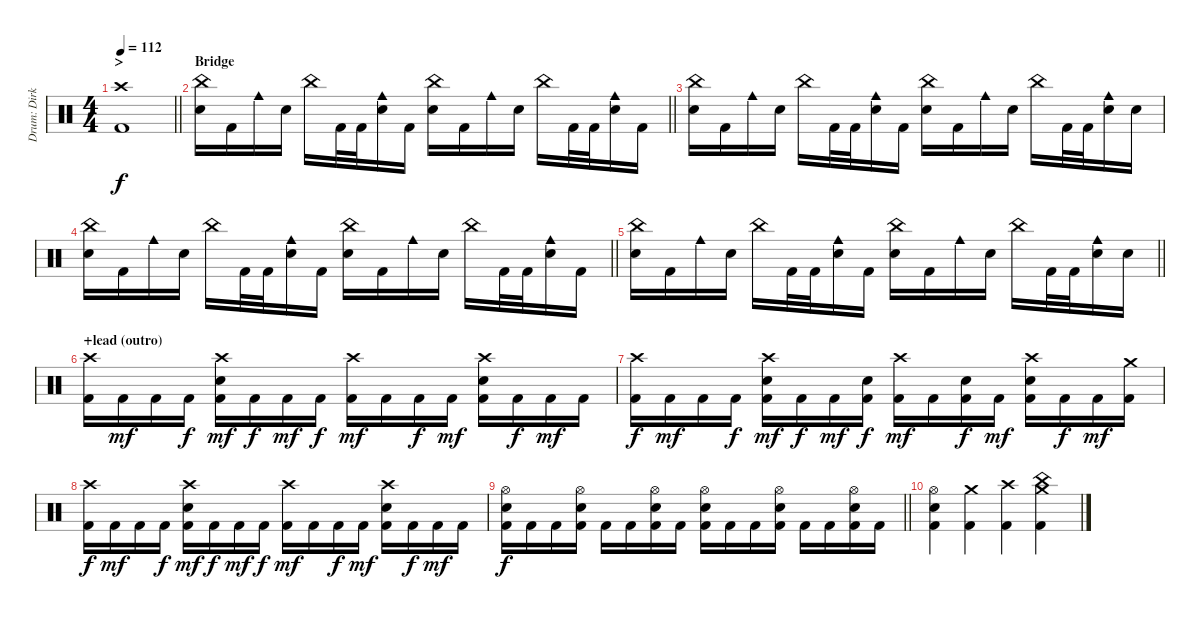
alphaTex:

\track ("Drum: Dirk" "Drum: Dirk") {instrument percussion}
\staff {score}
\articulation defaults
\ts (4 4)
\section ("" ">")
\tempo 112
\clef neutral
\barLineRight lightlight
\ks c
("Crash high (hit)" "Kick (hit) 2").1{dy f} |
\section ("" "Bridge")
\barLineRight lightlight
("China (hit)" "Electric Snare (hit)").16 "Kick (hit) 2".16 "Cowbell medium (hit)".16 "Electric Snare (hit)".16 "China (hit)".16 "Kick (hit) 2".32 "Kick (hit) 2".32 ("Cowbell medium (hit)" "Electric Snare (hit)").16 "Kick (hit) 2".16 ("China (hit)" "Electric Snare (hit)").16 "Kick (hit) 2".16 "Cowbell medium (hit)".16 "Electric Snare (hit)".16 "China (hit)".16 "Kick (hit) 2".32 "Kick (hit) 2".32 ("Cowbell medium (hit)" "Electric Snare (hit)").16 "Kick (hit) 2".16 |
("China (hit)" "Electric Snare (hit)").16 "Kick (hit) 2".16 "Cowbell medium (hit)".16 "Electric Snare (hit)".16 "China (hit)".16 "Kick (hit) 2".32 "Kick (hit) 2".32 ("Cowbell medium (hit)" "Electric Snare (hit)").16 "Kick (hit) 2".16 ("China (hit)" "Electric Snare (hit)").16 "Kick (hit) 2".16 "Cowbell medium (hit)".16 "Electric Snare (hit)".16 "China (hit)".16 "Kick (hit) 2".32 "Kick (hit) 2".32 ("Cowbell medium (hit)" "Electric Snare (hit)").16 "Electric Snare (hit)".16 |
\barLineRight lightlight
("China (hit)" "Electric Snare (hit)").16 "Kick (hit) 2".16 "Cowbell medium (hit)".16 "Electric Snare (hit)".16 "China (hit)".16 "Kick (hit) 2".32 "Kick (hit) 2".32 ("Cowbell medium (hit)" "Electric Snare (hit)").16 "Kick (hit) 2".16 ("China (hit)" "Electric Snare (hit)").16 "Kick (hit) 2".16 "Cowbell medium (hit)".16 "Electric Snare (hit)".16 "China (hit)".16 "Kick (hit) 2".32 "Kick (hit) 2".32 ("Cowbell medium (hit)" "Electric Snare (hit)").16 "Kick (hit) 2".16 |
\barLineRight lightlight
("China (hit)" "Electric Snare (hit)").16 "Kick (hit) 2".16 "Cowbell medium (hit)".16 "Electric Snare (hit)".16 "China (hit)".16 "Kick (hit) 2".32 "Kick (hit) 2".32 ("Cowbell medium (hit)" "Electric Snare (hit)").16 "Kick (hit) 2".16 ("China (hit)" "Electric Snare (hit)").16 "Kick (hit) 2".16 "Cowbell medium (hit)".16 "Electric Snare (hit)".16 "China (hit)".16 "Kick (hit) 2".32 "Kick (hit) 2".32 ("Cowbell medium (hit)" "Electric Snare (hit)").16 "Electric Snare (hit)".16 |
\section ("" "+lead (outro)")
("Crash high (hit)" "Kick (hit) 2").16 "Kick (hit) 2".16{dy mf} "Kick (hit) 2".16 "Kick (hit) 2".16{dy f} ("Crash high (hit)" "Electric Snare (hit)" "Kick (hit) 2").16{dy mf} "Kick (hit) 2".16{dy f} "Kick (hit) 2".16{dy mf} "Kick (hit) 2".16{dy f} ("Crash high (hit)" "Kick (hit) 2").16{dy mf} "Kick (hit) 2".16 "Kick (hit) 2".16{dy f} "Kick (hit) 2".16{dy mf} ("Crash high (hit)" "Electric Snare (hit)" "Kick (hit) 2").16 "Kick (hit) 2".16{dy f} "Kick (hit) 2".16{dy mf} "Kick (hit) 2".16 |
("Crash high (hit)" "Kick (hit) 2").16{dy f} "Kick (hit) 2".16{dy mf} "Kick (hit) 2".16 "Kick (hit) 2".16{dy f} ("Crash high (hit)" "Electric Snare (hit)" "Kick (hit) 2").16{dy mf} "Kick (hit) 2".16{dy f} "Kick (hit) 2".16{dy mf} ("Electric Snare (hit)" "Kick (hit) 2").16{dy f} ("Crash high (hit)" "Kick (hit) 2").16{dy mf} "Kick (hit) 2".16 ("Electric Snare (hit)" "Kick (hit) 2").16{dy f} "Kick (hit) 2".16{dy mf} ("Crash high (hit)" "Electric Snare (hit)" "Kick (hit) 2").16 "Kick (hit) 2".16{dy f} "Kick (hit) 2".16{dy mf} ("Crash medium (hit)" "Kick (hit) 2").16 |
("Crash high (hit)" "Kick (hit) 2").16{dy f} "Kick (hit) 2".16{dy mf} "Kick (hit) 2".16 "Kick (hit) 2".16{dy f} ("Crash high (hit)" "Electric Snare (hit)" "Kick (hit) 2").16{dy mf} "Kick (hit) 2".16{dy f} "Kick (hit) 2".16{dy mf} "Kick (hit) 2".16{dy f} ("Crash high (hit)" "Kick (hit) 2").16{dy mf} "Kick (hit) 2".16 "Kick (hit) 2".16{dy f} "Kick (hit) 2".16{dy mf} ("Crash high (hit)" "Electric Snare (hit)" "Kick (hit) 2").16 "Kick (hit) 2".16{dy f} "Kick (hit) 2".16{dy mf} "Kick (hit) 2".16 |
\barLineRight lightlight
("Hi-Hat (open)" "Electric Snare (hit)" "Kick (hit) 2").16{dy f} "Kick (hit) 2".16 "Kick (hit) 2".16 ("Hi-Hat (open)" "Electric Snare (hit)" "Kick (hit) 2").16 "Kick (hit) 2".16 "Kick (hit) 2".16 ("Hi-Hat (open)" "Electric Snare (hit)" "Kick (hit) 2").16 "Kick (hit) 2".16 ("Hi-Hat (open)" "Electric Snare (hit)" "Kick (hit) 2").16 "Kick (hit) 2".16 "Kick (hit) 2".16 ("Hi-Hat (open)" "Electric Snare (hit)" "Kick (hit) 2").16 "Kick (hit) 2".16 "Kick (hit) 2".16 ("Hi-Hat (open)" "Electric Snare (hit)" "Kick (hit) 2").16 "Kick (hit) 2".16 |
("Hi-Hat (open)" "Electric Snare (hit)" "Kick (hit) 2").4 ("Crash medium (hit)" "Kick (hit) 2").4 ("Crash high (hit)" "Kick (hit) 2").4 ("China (hit)" "Crash medium (hit)" "Kick (hit) 2").4
